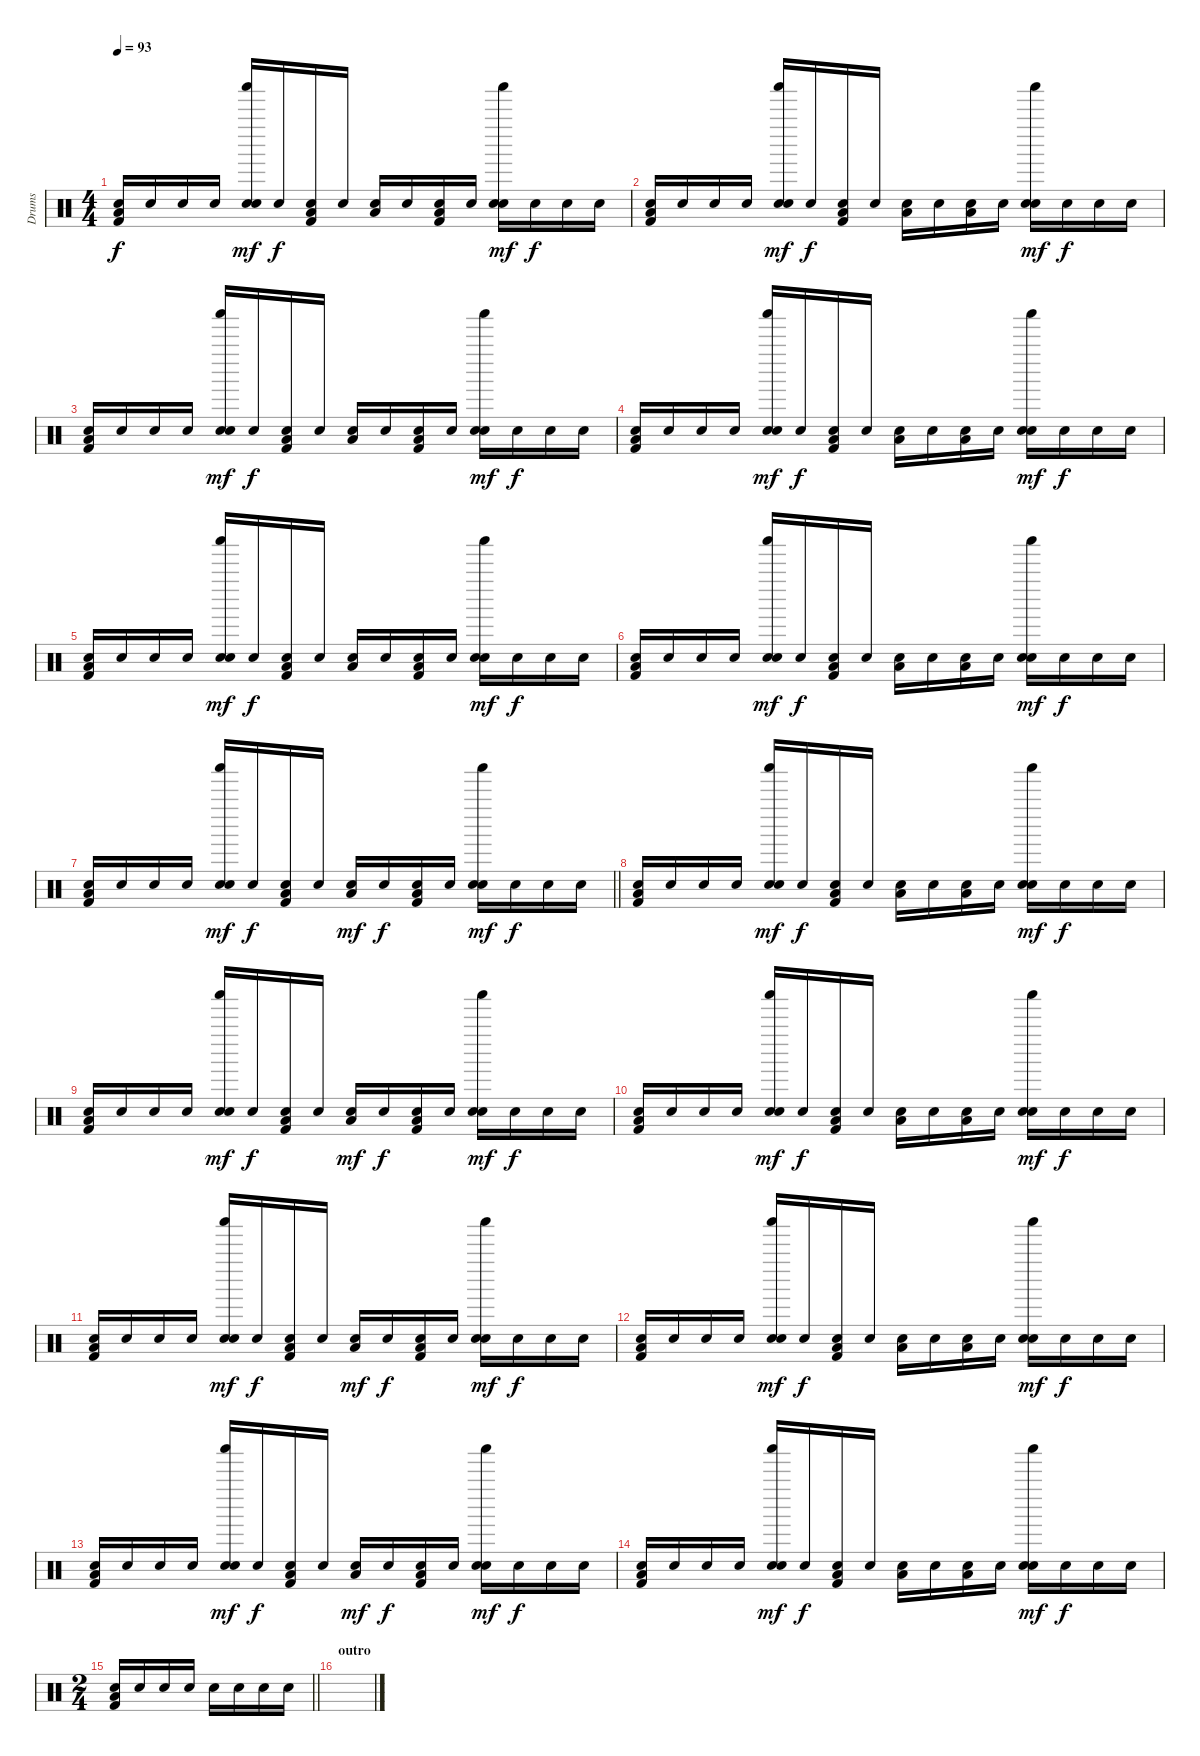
\track ("Drums" "Drums") {instrument percussion}
\staff {score}
\articulation defaults
\ts (4 4)
\tempo 93
\clef neutral
\ks c
("Snare (hit)" "Low Tom (hit)" "Kick (hit) 2").16{dy f} "Snare (hit)".16 "Snare (hit)".16 "Snare (hit)".16 ("Snare (hit)" "Shaker (hit)" "Electric Snare (hit)").16{dy mf} "Snare (hit)".16{dy f} ("Snare (hit)" "Low Tom (hit)" "Kick (hit) 2").16 "Snare (hit)".16 ("Snare (hit)" "Low Tom (hit)").16 "Snare (hit)".16 ("Snare (hit)" "Low Tom (hit)" "Kick (hit) 2").16 "Snare (hit)".16 ("Snare (hit)" "Shaker (hit)" "Electric Snare (hit)").16{dy mf} "Snare (hit)".16{dy f} "Snare (hit)".16 "Snare (hit)".16 |
("Snare (hit)" "Low Tom (hit)" "Kick (hit) 2").16 "Snare (hit)".16 "Snare (hit)".16 "Snare (hit)".16 ("Snare (hit)" "Shaker (hit)" "Electric Snare (hit)").16{dy mf} "Snare (hit)".16{dy f} ("Snare (hit)" "Low Tom (hit)" "Kick (hit) 2").16 "Snare (hit)".16 ("Snare (hit)" "Low Tom (hit)").16 "Snare (hit)".16 ("Snare (hit)" "Low Tom (hit)").16 "Snare (hit)".16 ("Snare (hit)" "Shaker (hit)" "Electric Snare (hit)").16{dy mf} "Snare (hit)".16{dy f} "Snare (hit)".16 "Snare (hit)".16 |
("Snare (hit)" "Low Tom (hit)" "Kick (hit) 2").16 "Snare (hit)".16 "Snare (hit)".16 "Snare (hit)".16 ("Snare (hit)" "Shaker (hit)" "Electric Snare (hit)").16{dy mf} "Snare (hit)".16{dy f} ("Snare (hit)" "Low Tom (hit)" "Kick (hit) 2").16 "Snare (hit)".16 ("Snare (hit)" "Low Tom (hit)").16 "Snare (hit)".16 ("Snare (hit)" "Low Tom (hit)" "Kick (hit) 2").16 "Snare (hit)".16 ("Snare (hit)" "Shaker (hit)" "Electric Snare (hit)").16{dy mf} "Snare (hit)".16{dy f} "Snare (hit)".16 "Snare (hit)".16 |
("Snare (hit)" "Low Tom (hit)" "Kick (hit) 2").16 "Snare (hit)".16 "Snare (hit)".16 "Snare (hit)".16 ("Snare (hit)" "Shaker (hit)" "Electric Snare (hit)").16{dy mf} "Snare (hit)".16{dy f} ("Snare (hit)" "Low Tom (hit)" "Kick (hit) 2").16 "Snare (hit)".16 ("Snare (hit)" "Low Tom (hit)").16 "Snare (hit)".16 ("Snare (hit)" "Low Tom (hit)").16 "Snare (hit)".16 ("Snare (hit)" "Shaker (hit)" "Electric Snare (hit)").16{dy mf} "Snare (hit)".16{dy f} "Snare (hit)".16 "Snare (hit)".16 |
("Snare (hit)" "Low Tom (hit)" "Kick (hit) 2").16 "Snare (hit)".16 "Snare (hit)".16 "Snare (hit)".16 ("Snare (hit)" "Shaker (hit)" "Electric Snare (hit)").16{dy mf} "Snare (hit)".16{dy f} ("Snare (hit)" "Low Tom (hit)" "Kick (hit) 2").16 "Snare (hit)".16 ("Snare (hit)" "Low Tom (hit)").16 "Snare (hit)".16 ("Snare (hit)" "Low Tom (hit)" "Kick (hit) 2").16 "Snare (hit)".16 ("Snare (hit)" "Shaker (hit)" "Electric Snare (hit)").16{dy mf} "Snare (hit)".16{dy f} "Snare (hit)".16 "Snare (hit)".16 |
("Snare (hit)" "Low Tom (hit)" "Kick (hit) 2").16 "Snare (hit)".16 "Snare (hit)".16 "Snare (hit)".16 ("Snare (hit)" "Shaker (hit)" "Electric Snare (hit)").16{dy mf} "Snare (hit)".16{dy f} ("Snare (hit)" "Low Tom (hit)" "Kick (hit) 2").16 "Snare (hit)".16 ("Snare (hit)" "Low Tom (hit)").16 "Snare (hit)".16 ("Snare (hit)" "Low Tom (hit)").16 "Snare (hit)".16 ("Snare (hit)" "Shaker (hit)" "Electric Snare (hit)").16{dy mf} "Snare (hit)".16{dy f} "Snare (hit)".16 "Snare (hit)".16 |
\barLineRight lightlight
("Snare (hit)" "Low Tom (hit)" "Kick (hit) 2").16 "Snare (hit)".16 "Snare (hit)".16 "Snare (hit)".16 ("Snare (hit)" "Shaker (hit)" "Electric Snare (hit)").16{dy mf} "Snare (hit)".16{dy f} ("Snare (hit)" "Low Tom (hit)" "Kick (hit) 2").16 "Snare (hit)".16 ("Snare (hit)" "Low Tom (hit)").16{dy mf} "Snare (hit)".16{dy f} ("Snare (hit)" "Low Tom (hit)" "Kick (hit) 2").16 "Snare (hit)".16 ("Snare (hit)" "Shaker (hit)" "Electric Snare (hit)").16{dy mf} "Snare (hit)".16{dy f} "Snare (hit)".16 "Snare (hit)".16 |
("Snare (hit)" "Low Tom (hit)" "Kick (hit) 2").16 "Snare (hit)".16 "Snare (hit)".16 "Snare (hit)".16 ("Snare (hit)" "Shaker (hit)" "Electric Snare (hit)").16{dy mf} "Snare (hit)".16{dy f} ("Snare (hit)" "Low Tom (hit)" "Kick (hit) 2").16 "Snare (hit)".16 ("Snare (hit)" "Low Tom (hit)").16 "Snare (hit)".16 ("Snare (hit)" "Low Tom (hit)").16 "Snare (hit)".16 ("Snare (hit)" "Shaker (hit)" "Electric Snare (hit)").16{dy mf} "Snare (hit)".16{dy f} "Snare (hit)".16 "Snare (hit)".16 |
("Snare (hit)" "Low Tom (hit)" "Kick (hit) 2").16 "Snare (hit)".16 "Snare (hit)".16 "Snare (hit)".16 ("Snare (hit)" "Shaker (hit)" "Electric Snare (hit)").16{dy mf} "Snare (hit)".16{dy f} ("Snare (hit)" "Low Tom (hit)" "Kick (hit) 2").16 "Snare (hit)".16 ("Snare (hit)" "Low Tom (hit)").16{dy mf} "Snare (hit)".16{dy f} ("Snare (hit)" "Low Tom (hit)" "Kick (hit) 2").16 "Snare (hit)".16 ("Snare (hit)" "Shaker (hit)" "Electric Snare (hit)").16{dy mf} "Snare (hit)".16{dy f} "Snare (hit)".16 "Snare (hit)".16 |
("Snare (hit)" "Low Tom (hit)" "Kick (hit) 2").16 "Snare (hit)".16 "Snare (hit)".16 "Snare (hit)".16 ("Snare (hit)" "Shaker (hit)" "Electric Snare (hit)").16{dy mf} "Snare (hit)".16{dy f} ("Snare (hit)" "Low Tom (hit)" "Kick (hit) 2").16 "Snare (hit)".16 ("Snare (hit)" "Low Tom (hit)").16 "Snare (hit)".16 ("Snare (hit)" "Low Tom (hit)").16 "Snare (hit)".16 ("Snare (hit)" "Shaker (hit)" "Electric Snare (hit)").16{dy mf} "Snare (hit)".16{dy f} "Snare (hit)".16 "Snare (hit)".16 |
("Snare (hit)" "Low Tom (hit)" "Kick (hit) 2").16 "Snare (hit)".16 "Snare (hit)".16 "Snare (hit)".16 ("Snare (hit)" "Shaker (hit)" "Electric Snare (hit)").16{dy mf} "Snare (hit)".16{dy f} ("Snare (hit)" "Low Tom (hit)" "Kick (hit) 2").16 "Snare (hit)".16 ("Snare (hit)" "Low Tom (hit)").16{dy mf} "Snare (hit)".16{dy f} ("Snare (hit)" "Low Tom (hit)" "Kick (hit) 2").16 "Snare (hit)".16 ("Snare (hit)" "Shaker (hit)" "Electric Snare (hit)").16{dy mf} "Snare (hit)".16{dy f} "Snare (hit)".16 "Snare (hit)".16 |
("Snare (hit)" "Low Tom (hit)" "Kick (hit) 2").16 "Snare (hit)".16 "Snare (hit)".16 "Snare (hit)".16 ("Snare (hit)" "Shaker (hit)" "Electric Snare (hit)").16{dy mf} "Snare (hit)".16{dy f} ("Snare (hit)" "Low Tom (hit)" "Kick (hit) 2").16 "Snare (hit)".16 ("Snare (hit)" "Low Tom (hit)").16 "Snare (hit)".16 ("Snare (hit)" "Low Tom (hit)").16 "Snare (hit)".16 ("Snare (hit)" "Shaker (hit)" "Electric Snare (hit)").16{dy mf} "Snare (hit)".16{dy f} "Snare (hit)".16 "Snare (hit)".16 |
("Snare (hit)" "Low Tom (hit)" "Kick (hit) 2").16 "Snare (hit)".16 "Snare (hit)".16 "Snare (hit)".16 ("Snare (hit)" "Shaker (hit)" "Electric Snare (hit)").16{dy mf} "Snare (hit)".16{dy f} ("Snare (hit)" "Low Tom (hit)" "Kick (hit) 2").16 "Snare (hit)".16 ("Snare (hit)" "Low Tom (hit)").16{dy mf} "Snare (hit)".16{dy f} ("Snare (hit)" "Low Tom (hit)" "Kick (hit) 2").16 "Snare (hit)".16 ("Snare (hit)" "Shaker (hit)" "Electric Snare (hit)").16{dy mf} "Snare (hit)".16{dy f} "Snare (hit)".16 "Snare (hit)".16 |
("Snare (hit)" "Low Tom (hit)" "Kick (hit) 2").16 "Snare (hit)".16 "Snare (hit)".16 "Snare (hit)".16 ("Snare (hit)" "Shaker (hit)" "Electric Snare (hit)").16{dy mf} "Snare (hit)".16{dy f} ("Snare (hit)" "Low Tom (hit)" "Kick (hit) 2").16 "Snare (hit)".16 ("Snare (hit)" "Low Tom (hit)").16 "Snare (hit)".16 ("Snare (hit)" "Low Tom (hit)").16 "Snare (hit)".16 ("Snare (hit)" "Shaker (hit)" "Electric Snare (hit)").16{dy mf} "Snare (hit)".16{dy f} "Snare (hit)".16 "Snare (hit)".16 |
\ts (2 4)
\barLineRight lightlight
("Snare (hit)" "Low Tom (hit)" "Kick (hit) 2").16 "Snare (hit)".16 "Snare (hit)".16 "Snare (hit)".16 "Snare (hit)".16 "Snare (hit)".16 "Snare (hit)".16 "Snare (hit)".16 |
\section ("" "outro")
